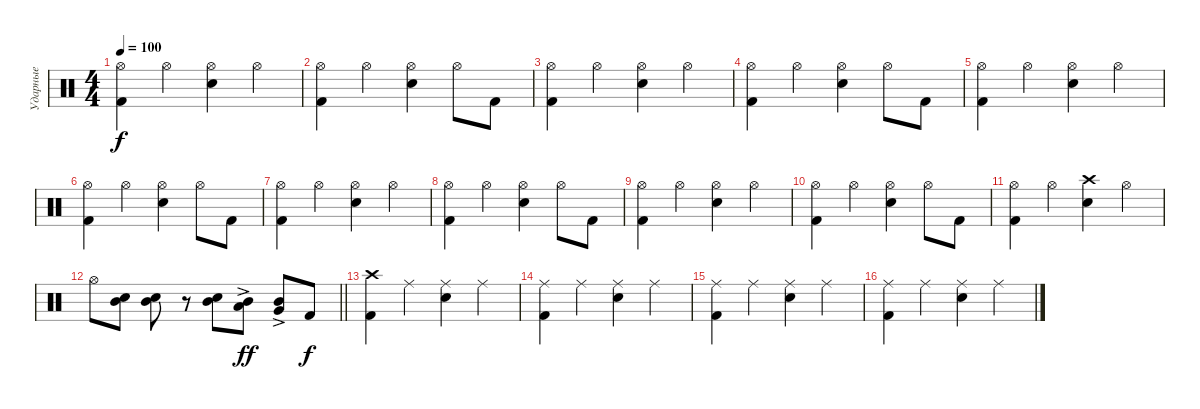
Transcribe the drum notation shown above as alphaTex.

\track ("Ударные" "Ударные") {instrument percussion}
\staff {score}
\articulation defaults
\ts (4 4)
\tempo 100
\clef neutral
\ks c
("Kick (hit) 2" "Hi-Hat (open)").4{dy f} "Hi-Hat (open)".4 ("Snare (hit) 2" "Hi-Hat (open)").4 "Hi-Hat (open)".4 |
("Kick (hit) 2" "Hi-Hat (open)").4 "Hi-Hat (open)".4 ("Snare (hit) 2" "Hi-Hat (open)").4 "Hi-Hat (open)".8 "Kick (hit) 2".8 |
("Kick (hit) 2" "Hi-Hat (open)").4 "Hi-Hat (open)".4 ("Snare (hit) 2" "Hi-Hat (open)").4 "Hi-Hat (open)".4 |
("Kick (hit) 2" "Hi-Hat (open)").4 "Hi-Hat (open)".4 ("Snare (hit) 2" "Hi-Hat (open)").4 "Hi-Hat (open)".8 "Kick (hit) 2".8 |
("Kick (hit) 2" "Hi-Hat (open)").4 "Hi-Hat (open)".4 ("Snare (hit) 2" "Hi-Hat (open)").4 "Hi-Hat (open)".4 |
("Kick (hit) 2" "Hi-Hat (open)").4 "Hi-Hat (open)".4 ("Snare (hit) 2" "Hi-Hat (open)").4 "Hi-Hat (open)".8 "Kick (hit) 2".8 |
("Kick (hit) 2" "Hi-Hat (open)").4 "Hi-Hat (open)".4 ("Snare (hit) 2" "Hi-Hat (open)").4 "Hi-Hat (open)".4 |
("Kick (hit) 2" "Hi-Hat (open)").4 "Hi-Hat (open)".4 ("Snare (hit) 2" "Hi-Hat (open)").4 "Hi-Hat (open)".8 "Kick (hit) 2".8 |
("Kick (hit) 2" "Hi-Hat (open)").4 "Hi-Hat (open)".4 ("Snare (hit) 2" "Hi-Hat (open)").4 "Hi-Hat (open)".4 |
("Kick (hit) 2" "Hi-Hat (open)").4 "Hi-Hat (open)".4 ("Snare (hit) 2" "Hi-Hat (open)").4 "Hi-Hat (open)".8 "Kick (hit) 2".8 |
("Kick (hit) 2" "Hi-Hat (open)").4 "Hi-Hat (open)".4 ("Snare (hit) 2" "Crash high (hit)").4 "Hi-Hat (open)".4 |
\barLineRight lightlight "Hi-Hat (open)".8
("Snare (hit) 2" "Mid Tom (hit)").8 ("Snare (hit) 2" "Mid Tom (hit)").8 r.8 ("Snare (hit) 2" "Mid Tom (hit)").8 ("Low Tom (hit)"{ac} "Mid Tom (hit)").8{dy ff} ("Very Low Tom (hit)"{ac} "Mid Tom (hit)").8 "Kick (hit) 2".8{dy f} |
("Kick (hit) 2" "Crash high (hit)").4 "Ride (middle)".4 ("Snare (hit) 2" "Ride (middle)").4 "Ride (middle)".4 |
("Kick (hit) 2" "Ride (middle)").4 "Ride (middle)".4 ("Snare (hit) 2" "Ride (middle)").4 "Ride (middle)".4 |
("Kick (hit) 2" "Ride (middle)").4 "Ride (middle)".4 ("Snare (hit) 2" "Ride (middle)").4 "Ride (middle)".4 |
("Kick (hit) 2" "Ride (middle)").4 "Ride (middle)".4 ("Snare (hit) 2" "Ride (middle)").4 "Ride (middle)".4
